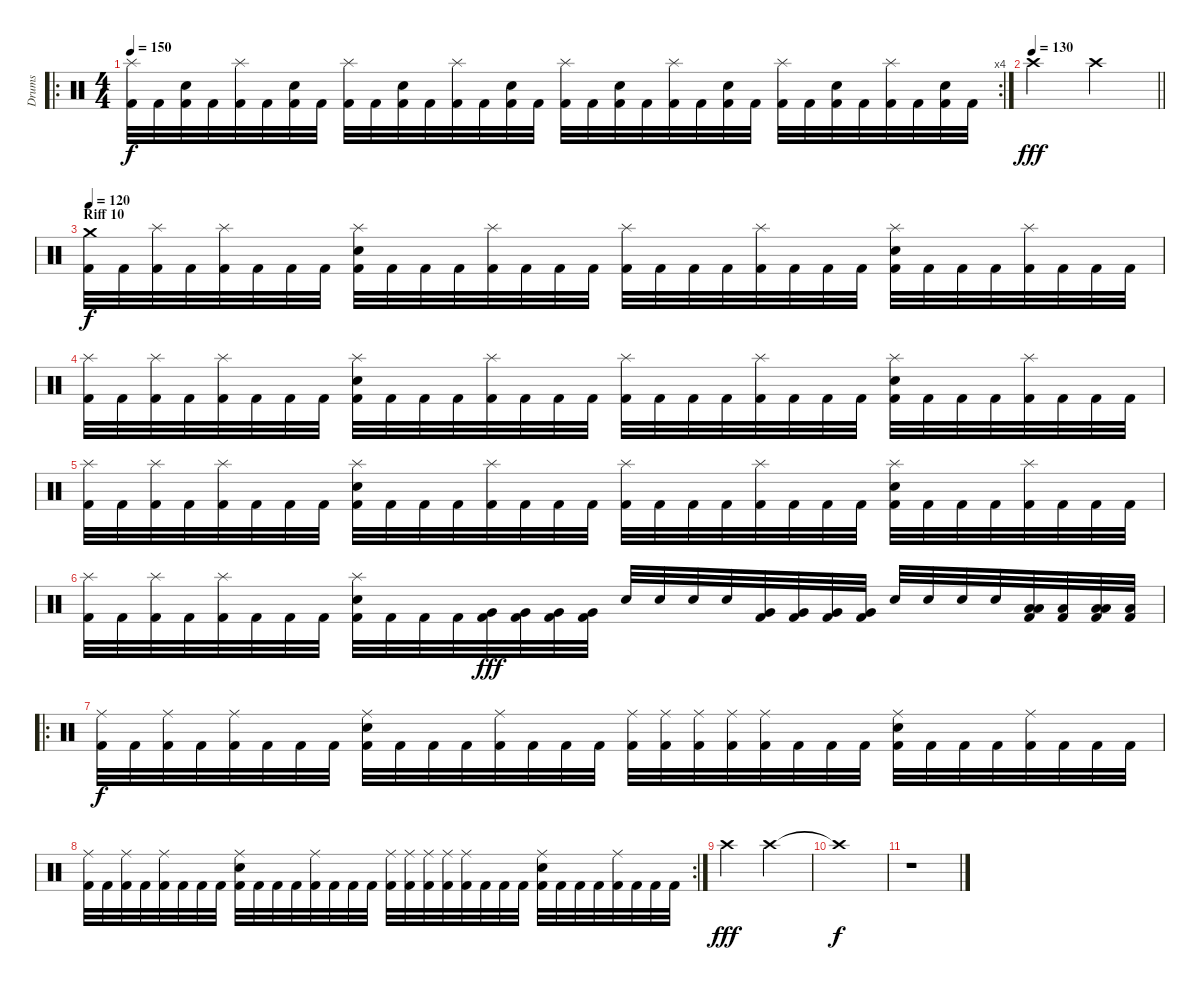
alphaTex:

\track ("Drums" "Drums") {instrument percussion}
\staff {score}
\articulation defaults
\ro
\rc 4
\ts (4 4)
\tempo 150
\clef neutral
\ks c
("Splash (hit)" "Kick (hit) 2").32{dy f} "Kick (hit) 2".32 ("Electric Snare (hit)" "Kick (hit) 2").32 "Kick (hit) 2".32 ("Splash (hit)" "Kick (hit) 2").32 "Kick (hit) 2".32 ("Electric Snare (hit)" "Kick (hit) 2").32 "Kick (hit) 2".32 ("Splash (hit)" "Kick (hit) 2").32 "Kick (hit) 2".32 ("Electric Snare (hit)" "Kick (hit) 2").32 "Kick (hit) 2".32 ("Splash (hit)" "Kick (hit) 2").32 "Kick (hit) 2".32 ("Electric Snare (hit)" "Kick (hit) 2").32 "Kick (hit) 2".32 ("Splash (hit)" "Kick (hit) 2").32 "Kick (hit) 2".32 ("Electric Snare (hit)" "Kick (hit) 2").32 "Kick (hit) 2".32 ("Splash (hit)" "Kick (hit) 2").32 "Kick (hit) 2".32 ("Electric Snare (hit)" "Kick (hit) 2").32 "Kick (hit) 2".32 ("Splash (hit)" "Kick (hit) 2").32 "Kick (hit) 2".32 ("Electric Snare (hit)" "Kick (hit) 2").32 "Kick (hit) 2".32 ("Splash (hit)" "Kick (hit) 2").32 "Kick (hit) 2".32 ("Electric Snare (hit)" "Kick (hit) 2").32 "Kick (hit) 2".32 |
\tempo 130
\barLineRight lightlight "Crash high (hit)".2{dy fff} "Crash high (hit)".2
|
\section ("" "Riff 10")
\tempo 120
("Crash medium (hit)" "Kick (hit) 2").32{dy f} "Kick (hit) 2".32 ("Splash (hit)" "Kick (hit) 2").32 "Kick (hit) 2".32 ("Splash (hit)" "Kick (hit) 2").32 "Kick (hit) 2".32 "Kick (hit) 2".32 "Kick (hit) 2".32 ("Splash (hit)" "Electric Snare (hit)" "Kick (hit) 2").32 "Kick (hit) 2".32 "Kick (hit) 2".32 "Kick (hit) 2".32 ("Splash (hit)" "Kick (hit) 2").32 "Kick (hit) 2".32 "Kick (hit) 2".32 "Kick (hit) 2".32 ("Splash (hit)" "Kick (hit) 2").32 "Kick (hit) 2".32 "Kick (hit) 2".32 "Kick (hit) 2".32 ("Splash (hit)" "Kick (hit) 2").32 "Kick (hit) 2".32 "Kick (hit) 2".32 "Kick (hit) 2".32 ("Splash (hit)" "Electric Snare (hit)" "Kick (hit) 2").32 "Kick (hit) 2".32 "Kick (hit) 2".32 "Kick (hit) 2".32 ("Splash (hit)" "Kick (hit) 2").32 "Kick (hit) 2".32 "Kick (hit) 2".32 "Kick (hit) 2".32 |
("Splash (hit)" "Kick (hit) 2").32 "Kick (hit) 2".32 ("Splash (hit)" "Kick (hit) 2").32 "Kick (hit) 2".32 ("Splash (hit)" "Kick (hit) 2").32 "Kick (hit) 2".32 "Kick (hit) 2".32 "Kick (hit) 2".32 ("Splash (hit)" "Electric Snare (hit)" "Kick (hit) 2").32 "Kick (hit) 2".32 "Kick (hit) 2".32 "Kick (hit) 2".32 ("Splash (hit)" "Kick (hit) 2").32 "Kick (hit) 2".32 "Kick (hit) 2".32 "Kick (hit) 2".32 ("Splash (hit)" "Kick (hit) 2").32 "Kick (hit) 2".32 "Kick (hit) 2".32 "Kick (hit) 2".32 ("Splash (hit)" "Kick (hit) 2").32 "Kick (hit) 2".32 "Kick (hit) 2".32 "Kick (hit) 2".32 ("Splash (hit)" "Electric Snare (hit)" "Kick (hit) 2").32 "Kick (hit) 2".32 "Kick (hit) 2".32 "Kick (hit) 2".32 ("Splash (hit)" "Kick (hit) 2").32 "Kick (hit) 2".32 "Kick (hit) 2".32 "Kick (hit) 2".32 |
("Splash (hit)" "Kick (hit) 2").32 "Kick (hit) 2".32 ("Splash (hit)" "Kick (hit) 2").32 "Kick (hit) 2".32 ("Splash (hit)" "Kick (hit) 2").32 "Kick (hit) 2".32 "Kick (hit) 2".32 "Kick (hit) 2".32 ("Splash (hit)" "Electric Snare (hit)" "Kick (hit) 2").32 "Kick (hit) 2".32 "Kick (hit) 2".32 "Kick (hit) 2".32 ("Splash (hit)" "Kick (hit) 2").32 "Kick (hit) 2".32 "Kick (hit) 2".32 "Kick (hit) 2".32 ("Splash (hit)" "Kick (hit) 2").32 "Kick (hit) 2".32 "Kick (hit) 2".32 "Kick (hit) 2".32 ("Splash (hit)" "Kick (hit) 2").32 "Kick (hit) 2".32 "Kick (hit) 2".32 "Kick (hit) 2".32 ("Splash (hit)" "Electric Snare (hit)" "Kick (hit) 2").32 "Kick (hit) 2".32 "Kick (hit) 2".32 "Kick (hit) 2".32 ("Splash (hit)" "Kick (hit) 2").32 "Kick (hit) 2".32 "Kick (hit) 2".32 "Kick (hit) 2".32 |
("Splash (hit)" "Kick (hit) 2").32 "Kick (hit) 2".32 ("Splash (hit)" "Kick (hit) 2").32 "Kick (hit) 2".32 ("Splash (hit)" "Kick (hit) 2").32 "Kick (hit) 2".32 "Kick (hit) 2".32 "Kick (hit) 2".32 ("Splash (hit)" "Electric Snare (hit)" "Kick (hit) 2").32 "Kick (hit) 2".32 "Kick (hit) 2".32 "Kick (hit) 2".32 ("Very Low Tom (hit)" "Kick (hit) 2").32{dy fff} ("Very Low Tom (hit)" "Kick (hit) 2").32 ("Very Low Tom (hit)" "Kick (hit) 2").32 ("Very Low Tom (hit)" "Kick (hit) 2").32 "Electric Snare (hit)".32 "Electric Snare (hit)".32 "Electric Snare (hit)".32 "Electric Snare (hit)".32 ("Very Low Tom (hit)" "Kick (hit) 2").32 ("Very Low Tom (hit)" "Kick (hit) 2").32 ("Very Low Tom (hit)" "Kick (hit) 2").32 ("Very Low Tom (hit)" "Kick (hit) 2").32 "Electric Snare (hit)".32 "Electric Snare (hit)".32 "Electric Snare (hit)".32 "Electric Snare (hit)".32 ("Low Floor Tom (hit)" "Low Tom (hit)" "Kick (hit) 2").32 ("Low Tom (hit)" "Kick (hit) 2").32 ("Low Floor Tom (hit)" "Low Tom (hit)" "Kick (hit) 2").32 ("Low Tom (hit)" "Kick (hit) 2").32 |
\ro
("Ride (middle)" "Kick (hit) 2").32{dy f} "Kick (hit) 2".32 ("Ride (middle)" "Kick (hit) 2").32 "Kick (hit) 2".32 ("Ride (middle)" "Kick (hit) 2").32 "Kick (hit) 2".32 "Kick (hit) 2".32 "Kick (hit) 2".32 ("Ride (middle)" "Electric Snare (hit)" "Kick (hit) 2").32 "Kick (hit) 2".32 "Kick (hit) 2".32 "Kick (hit) 2".32 ("Ride (middle)" "Kick (hit) 2").32 "Kick (hit) 2".32 "Kick (hit) 2".32 "Kick (hit) 2".32 ("Ride (middle)" "Kick (hit) 2").32 ("Ride (middle)" "Kick (hit) 2").32 ("Ride (middle)" "Kick (hit) 2").32 ("Ride (middle)" "Kick (hit) 2").32 ("Ride (middle)" "Kick (hit) 2").32 "Kick (hit) 2".32 "Kick (hit) 2".32 "Kick (hit) 2".32 ("Ride (middle)" "Electric Snare (hit)" "Kick (hit) 2").32 "Kick (hit) 2".32 "Kick (hit) 2".32 "Kick (hit) 2".32 ("Ride (middle)" "Kick (hit) 2").32 "Kick (hit) 2".32 "Kick (hit) 2".32 "Kick (hit) 2".32 |
\rc 2
("Ride (middle)" "Kick (hit) 2").32 "Kick (hit) 2".32 ("Ride (middle)" "Kick (hit) 2").32 "Kick (hit) 2".32 ("Ride (middle)" "Kick (hit) 2").32 "Kick (hit) 2".32 "Kick (hit) 2".32 "Kick (hit) 2".32 ("Ride (middle)" "Electric Snare (hit)" "Kick (hit) 2").32 "Kick (hit) 2".32 "Kick (hit) 2".32 "Kick (hit) 2".32 ("Ride (middle)" "Kick (hit) 2").32 "Kick (hit) 2".32 "Kick (hit) 2".32 "Kick (hit) 2".32 ("Ride (middle)" "Kick (hit) 2").32 ("Ride (middle)" "Kick (hit) 2").32 ("Ride (middle)" "Kick (hit) 2").32 ("Ride (middle)" "Kick (hit) 2").32 ("Ride (middle)" "Kick (hit) 2").32 "Kick (hit) 2".32 "Kick (hit) 2".32 "Kick (hit) 2".32 ("Ride (middle)" "Electric Snare (hit)" "Kick (hit) 2").32 "Kick (hit) 2".32 "Kick (hit) 2".32 "Kick (hit) 2".32 ("Ride (middle)" "Kick (hit) 2").32 "Kick (hit) 2".32 "Kick (hit) 2".32 "Kick (hit) 2".32 |
"Crash high (hit)".2{dy fff} "Crash high (hit)".2 |
"Crash high (hit)"{t}.1{dy f} |
r.1
